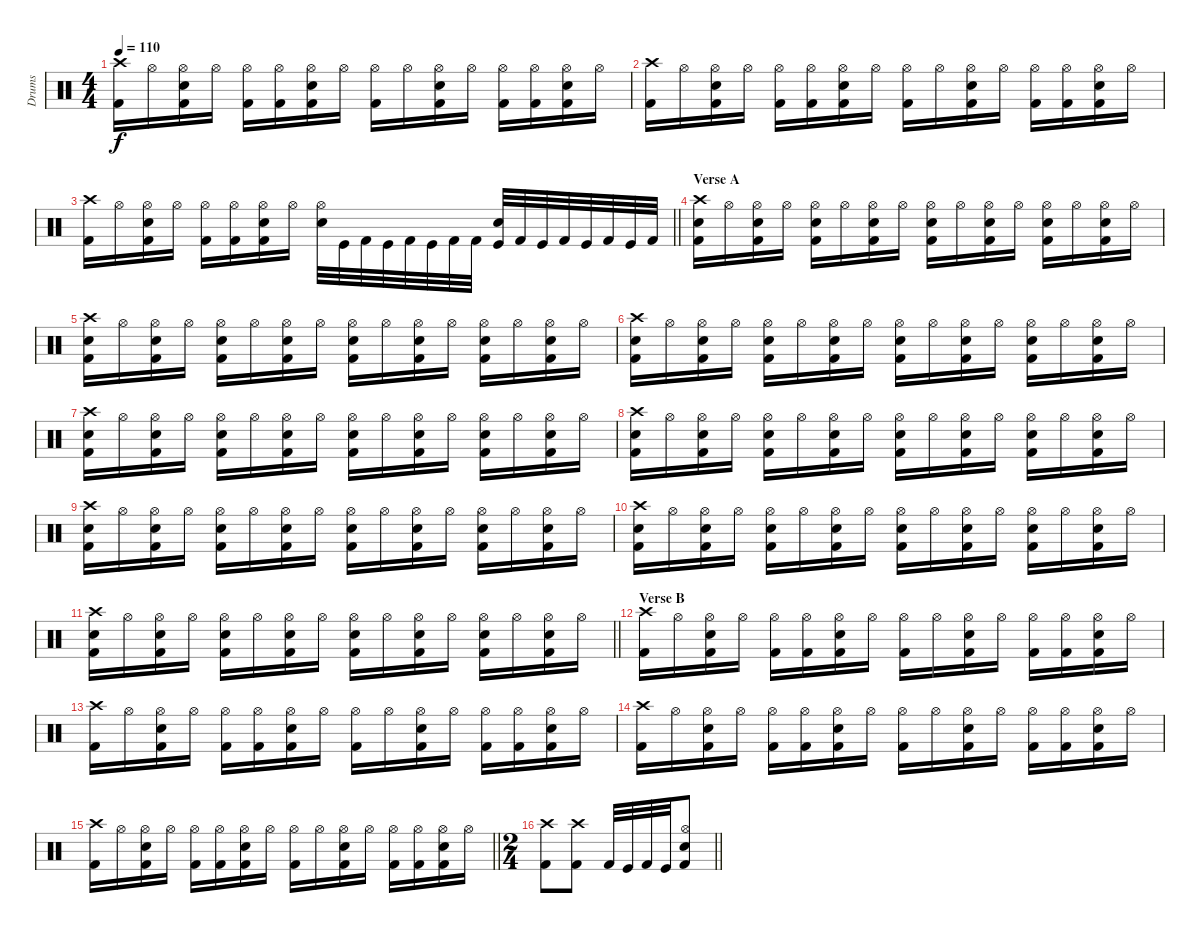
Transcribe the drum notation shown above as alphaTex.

\track ("Drums" "Drums") {instrument percussion}
\staff {score}
\articulation defaults
\ts (4 4)
\tempo 110
\clef neutral
\ks c
("Kick (hit) 2" "Crash high (hit)").16{dy f} "Hi-Hat (open)".16 ("Kick (hit) 2" "Snare (hit) 2" "Hi-Hat (open)").16 "Hi-Hat (open)".16 ("Kick (hit) 2" "Hi-Hat (open)").16 ("Kick (hit) 2" "Hi-Hat (open)").16 ("Kick (hit) 2" "Snare (hit) 2" "Hi-Hat (open)").16 "Hi-Hat (open)".16 ("Kick (hit) 2" "Hi-Hat (open)").16 "Hi-Hat (open)".16 ("Kick (hit) 2" "Snare (hit) 2" "Hi-Hat (open)").16 "Hi-Hat (open)".16 ("Kick (hit) 2" "Hi-Hat (open)").16 ("Kick (hit) 2" "Hi-Hat (open)").16 ("Kick (hit) 2" "Snare (hit) 2" "Hi-Hat (open)").16 "Hi-Hat (open)".16 |
("Kick (hit) 2" "Crash high (hit)").16 "Hi-Hat (open)".16 ("Kick (hit) 2" "Snare (hit) 2" "Hi-Hat (open)").16 "Hi-Hat (open)".16 ("Kick (hit) 2" "Hi-Hat (open)").16 ("Kick (hit) 2" "Hi-Hat (open)").16 ("Kick (hit) 2" "Snare (hit) 2" "Hi-Hat (open)").16 "Hi-Hat (open)".16 ("Kick (hit) 2" "Hi-Hat (open)").16 "Hi-Hat (open)".16 ("Kick (hit) 2" "Snare (hit) 2" "Hi-Hat (open)").16 "Hi-Hat (open)".16 ("Kick (hit) 2" "Hi-Hat (open)").16 ("Kick (hit) 2" "Hi-Hat (open)").16 ("Kick (hit) 2" "Snare (hit) 2" "Hi-Hat (open)").16 "Hi-Hat (open)".16 |
\barLineRight lightlight
("Kick (hit) 2" "Crash high (hit)").16 "Hi-Hat (open)".16 ("Kick (hit) 2" "Snare (hit) 2" "Hi-Hat (open)").16 "Hi-Hat (open)".16 ("Kick (hit) 2" "Hi-Hat (open)").16 ("Kick (hit) 2" "Hi-Hat (open)").16 ("Kick (hit) 2" "Snare (hit) 2" "Hi-Hat (open)").16 "Hi-Hat (open)".16 ("Snare (hit) 2" "Hi-Hat (open)").32 "Kick (hit)".32 "Kick (hit) 2".32 "Kick (hit)".32 "Kick (hit) 2".32 "Kick (hit)".32 "Kick (hit) 2".32 "Kick (hit) 2".32 ("Kick (hit)" "Snare (hit) 2").32 "Kick (hit) 2".32 "Kick (hit)".32 "Kick (hit) 2".32 "Kick (hit)".32 "Kick (hit) 2".32 "Kick (hit)".32 "Kick (hit) 2".32 |
\section ("" "Verse A")
("Kick (hit) 2" "Snare (hit) 2" "Crash high (hit)").16 "Hi-Hat (open)".16 ("Kick (hit) 2" "Snare (hit) 2" "Hi-Hat (open)").16 "Hi-Hat (open)".16 ("Kick (hit) 2" "Snare (hit) 2" "Hi-Hat (open)").16 "Hi-Hat (open)".16 ("Kick (hit) 2" "Snare (hit) 2" "Hi-Hat (open)").16 "Hi-Hat (open)".16 ("Kick (hit) 2" "Snare (hit) 2" "Hi-Hat (open)").16 "Hi-Hat (open)".16 ("Kick (hit) 2" "Snare (hit) 2" "Hi-Hat (open)").16 "Hi-Hat (open)".16 ("Kick (hit) 2" "Snare (hit) 2" "Hi-Hat (open)").16 "Hi-Hat (open)".16 ("Kick (hit) 2" "Snare (hit) 2" "Hi-Hat (open)").16 "Hi-Hat (open)".16 |
("Kick (hit) 2" "Snare (hit) 2" "Crash high (hit)").16 "Hi-Hat (open)".16 ("Kick (hit) 2" "Snare (hit) 2" "Hi-Hat (open)").16 "Hi-Hat (open)".16 ("Kick (hit) 2" "Snare (hit) 2" "Hi-Hat (open)").16 "Hi-Hat (open)".16 ("Kick (hit) 2" "Snare (hit) 2" "Hi-Hat (open)").16 "Hi-Hat (open)".16 ("Kick (hit) 2" "Snare (hit) 2" "Hi-Hat (open)").16 "Hi-Hat (open)".16 ("Kick (hit) 2" "Snare (hit) 2" "Hi-Hat (open)").16 "Hi-Hat (open)".16 ("Kick (hit) 2" "Snare (hit) 2" "Hi-Hat (open)").16 "Hi-Hat (open)".16 ("Kick (hit) 2" "Snare (hit) 2" "Hi-Hat (open)").16 "Hi-Hat (open)".16 |
("Kick (hit) 2" "Snare (hit) 2" "Crash high (hit)").16 "Hi-Hat (open)".16 ("Kick (hit) 2" "Snare (hit) 2" "Hi-Hat (open)").16 "Hi-Hat (open)".16 ("Kick (hit) 2" "Snare (hit) 2" "Hi-Hat (open)").16 "Hi-Hat (open)".16 ("Kick (hit) 2" "Snare (hit) 2" "Hi-Hat (open)").16 "Hi-Hat (open)".16 ("Kick (hit) 2" "Snare (hit) 2" "Hi-Hat (open)").16 "Hi-Hat (open)".16 ("Kick (hit) 2" "Snare (hit) 2" "Hi-Hat (open)").16 "Hi-Hat (open)".16 ("Kick (hit) 2" "Snare (hit) 2" "Hi-Hat (open)").16 "Hi-Hat (open)".16 ("Kick (hit) 2" "Snare (hit) 2" "Hi-Hat (open)").16 "Hi-Hat (open)".16 |
("Kick (hit) 2" "Snare (hit) 2" "Crash high (hit)").16 "Hi-Hat (open)".16 ("Kick (hit) 2" "Snare (hit) 2" "Hi-Hat (open)").16 "Hi-Hat (open)".16 ("Kick (hit) 2" "Snare (hit) 2" "Hi-Hat (open)").16 "Hi-Hat (open)".16 ("Kick (hit) 2" "Snare (hit) 2" "Hi-Hat (open)").16 "Hi-Hat (open)".16 ("Kick (hit) 2" "Snare (hit) 2" "Hi-Hat (open)").16 "Hi-Hat (open)".16 ("Kick (hit) 2" "Snare (hit) 2" "Hi-Hat (open)").16 "Hi-Hat (open)".16 ("Kick (hit) 2" "Snare (hit) 2" "Hi-Hat (open)").16 "Hi-Hat (open)".16 ("Kick (hit) 2" "Snare (hit) 2" "Hi-Hat (open)").16 "Hi-Hat (open)".16 |
("Kick (hit) 2" "Snare (hit) 2" "Crash high (hit)").16 "Hi-Hat (open)".16 ("Kick (hit) 2" "Snare (hit) 2" "Hi-Hat (open)").16 "Hi-Hat (open)".16 ("Kick (hit) 2" "Snare (hit) 2" "Hi-Hat (open)").16 "Hi-Hat (open)".16 ("Kick (hit) 2" "Snare (hit) 2" "Hi-Hat (open)").16 "Hi-Hat (open)".16 ("Kick (hit) 2" "Snare (hit) 2" "Hi-Hat (open)").16 "Hi-Hat (open)".16 ("Kick (hit) 2" "Snare (hit) 2" "Hi-Hat (open)").16 "Hi-Hat (open)".16 ("Kick (hit) 2" "Snare (hit) 2" "Hi-Hat (open)").16 "Hi-Hat (open)".16 ("Kick (hit) 2" "Snare (hit) 2" "Hi-Hat (open)").16 "Hi-Hat (open)".16 |
("Kick (hit) 2" "Snare (hit) 2" "Crash high (hit)").16 "Hi-Hat (open)".16 ("Kick (hit) 2" "Snare (hit) 2" "Hi-Hat (open)").16 "Hi-Hat (open)".16 ("Kick (hit) 2" "Snare (hit) 2" "Hi-Hat (open)").16 "Hi-Hat (open)".16 ("Kick (hit) 2" "Snare (hit) 2" "Hi-Hat (open)").16 "Hi-Hat (open)".16 ("Kick (hit) 2" "Snare (hit) 2" "Hi-Hat (open)").16 "Hi-Hat (open)".16 ("Kick (hit) 2" "Snare (hit) 2" "Hi-Hat (open)").16 "Hi-Hat (open)".16 ("Kick (hit) 2" "Snare (hit) 2" "Hi-Hat (open)").16 "Hi-Hat (open)".16 ("Kick (hit) 2" "Snare (hit) 2" "Hi-Hat (open)").16 "Hi-Hat (open)".16 |
("Kick (hit) 2" "Snare (hit) 2" "Crash high (hit)").16 "Hi-Hat (open)".16 ("Kick (hit) 2" "Snare (hit) 2" "Hi-Hat (open)").16 "Hi-Hat (open)".16 ("Kick (hit) 2" "Snare (hit) 2" "Hi-Hat (open)").16 "Hi-Hat (open)".16 ("Kick (hit) 2" "Snare (hit) 2" "Hi-Hat (open)").16 "Hi-Hat (open)".16 ("Kick (hit) 2" "Snare (hit) 2" "Hi-Hat (open)").16 "Hi-Hat (open)".16 ("Kick (hit) 2" "Snare (hit) 2" "Hi-Hat (open)").16 "Hi-Hat (open)".16 ("Kick (hit) 2" "Snare (hit) 2" "Hi-Hat (open)").16 "Hi-Hat (open)".16 ("Kick (hit) 2" "Snare (hit) 2" "Hi-Hat (open)").16 "Hi-Hat (open)".16 |
\barLineRight lightlight
("Kick (hit) 2" "Snare (hit) 2" "Crash high (hit)").16 "Hi-Hat (open)".16 ("Kick (hit) 2" "Snare (hit) 2" "Hi-Hat (open)").16 "Hi-Hat (open)".16 ("Kick (hit) 2" "Snare (hit) 2" "Hi-Hat (open)").16 "Hi-Hat (open)".16 ("Kick (hit) 2" "Snare (hit) 2" "Hi-Hat (open)").16 "Hi-Hat (open)".16 ("Kick (hit) 2" "Snare (hit) 2" "Hi-Hat (open)").16 "Hi-Hat (open)".16 ("Kick (hit) 2" "Snare (hit) 2" "Hi-Hat (open)").16 "Hi-Hat (open)".16 ("Kick (hit) 2" "Snare (hit) 2" "Hi-Hat (open)").16 "Hi-Hat (open)".16 ("Kick (hit) 2" "Snare (hit) 2" "Hi-Hat (open)").16 "Hi-Hat (open)".16 |
\section ("" "Verse B")
("Kick (hit) 2" "Crash high (hit)").16 "Hi-Hat (open)".16 ("Kick (hit) 2" "Snare (hit) 2" "Hi-Hat (open)").16 "Hi-Hat (open)".16 ("Kick (hit) 2" "Hi-Hat (open)").16 ("Kick (hit) 2" "Hi-Hat (open)").16 ("Kick (hit) 2" "Snare (hit) 2" "Hi-Hat (open)").16 "Hi-Hat (open)".16 ("Kick (hit) 2" "Hi-Hat (open)").16 "Hi-Hat (open)".16 ("Kick (hit) 2" "Snare (hit) 2" "Hi-Hat (open)").16 "Hi-Hat (open)".16 ("Kick (hit) 2" "Hi-Hat (open)").16 ("Kick (hit) 2" "Hi-Hat (open)").16 ("Kick (hit) 2" "Snare (hit) 2" "Hi-Hat (open)").16 "Hi-Hat (open)".16 |
("Kick (hit) 2" "Crash high (hit)").16 "Hi-Hat (open)".16 ("Kick (hit) 2" "Snare (hit) 2" "Hi-Hat (open)").16 "Hi-Hat (open)".16 ("Kick (hit) 2" "Hi-Hat (open)").16 ("Kick (hit) 2" "Hi-Hat (open)").16 ("Kick (hit) 2" "Snare (hit) 2" "Hi-Hat (open)").16 "Hi-Hat (open)".16 ("Kick (hit) 2" "Hi-Hat (open)").16 "Hi-Hat (open)".16 ("Kick (hit) 2" "Snare (hit) 2" "Hi-Hat (open)").16 "Hi-Hat (open)".16 ("Kick (hit) 2" "Hi-Hat (open)").16 ("Kick (hit) 2" "Hi-Hat (open)").16 ("Kick (hit) 2" "Snare (hit) 2" "Hi-Hat (open)").16 "Hi-Hat (open)".16 |
("Kick (hit) 2" "Crash high (hit)").16 "Hi-Hat (open)".16 ("Kick (hit) 2" "Snare (hit) 2" "Hi-Hat (open)").16 "Hi-Hat (open)".16 ("Kick (hit) 2" "Hi-Hat (open)").16 ("Kick (hit) 2" "Hi-Hat (open)").16 ("Kick (hit) 2" "Snare (hit) 2" "Hi-Hat (open)").16 "Hi-Hat (open)".16 ("Kick (hit) 2" "Hi-Hat (open)").16 "Hi-Hat (open)".16 ("Kick (hit) 2" "Snare (hit) 2" "Hi-Hat (open)").16 "Hi-Hat (open)".16 ("Kick (hit) 2" "Hi-Hat (open)").16 ("Kick (hit) 2" "Hi-Hat (open)").16 ("Kick (hit) 2" "Snare (hit) 2" "Hi-Hat (open)").16 "Hi-Hat (open)".16 |
\barLineRight lightlight
("Kick (hit) 2" "Crash high (hit)").16 "Hi-Hat (open)".16 ("Kick (hit) 2" "Snare (hit) 2" "Hi-Hat (open)").16 "Hi-Hat (open)".16 ("Kick (hit) 2" "Hi-Hat (open)").16 ("Kick (hit) 2" "Hi-Hat (open)").16 ("Kick (hit) 2" "Snare (hit) 2" "Hi-Hat (open)").16 "Hi-Hat (open)".16 ("Kick (hit) 2" "Hi-Hat (open)").16 "Hi-Hat (open)".16 ("Kick (hit) 2" "Snare (hit) 2" "Hi-Hat (open)").16 "Hi-Hat (open)".16 ("Kick (hit) 2" "Hi-Hat (open)").16 ("Kick (hit) 2" "Hi-Hat (open)").16 ("Kick (hit) 2" "Snare (hit) 2" "Hi-Hat (open)").16 "Hi-Hat (open)".16 |
\ts (2 4)
\barLineRight lightlight
("Kick (hit) 2" "Crash high (hit)").8 ("Kick (hit) 2" "Crash high (hit)").8 "Kick (hit) 2".32 "Kick (hit)".32 "Kick (hit) 2".32 "Kick (hit)".32 ("Kick (hit) 2" "Snare (hit) 2" "Hi-Hat (open)").8
